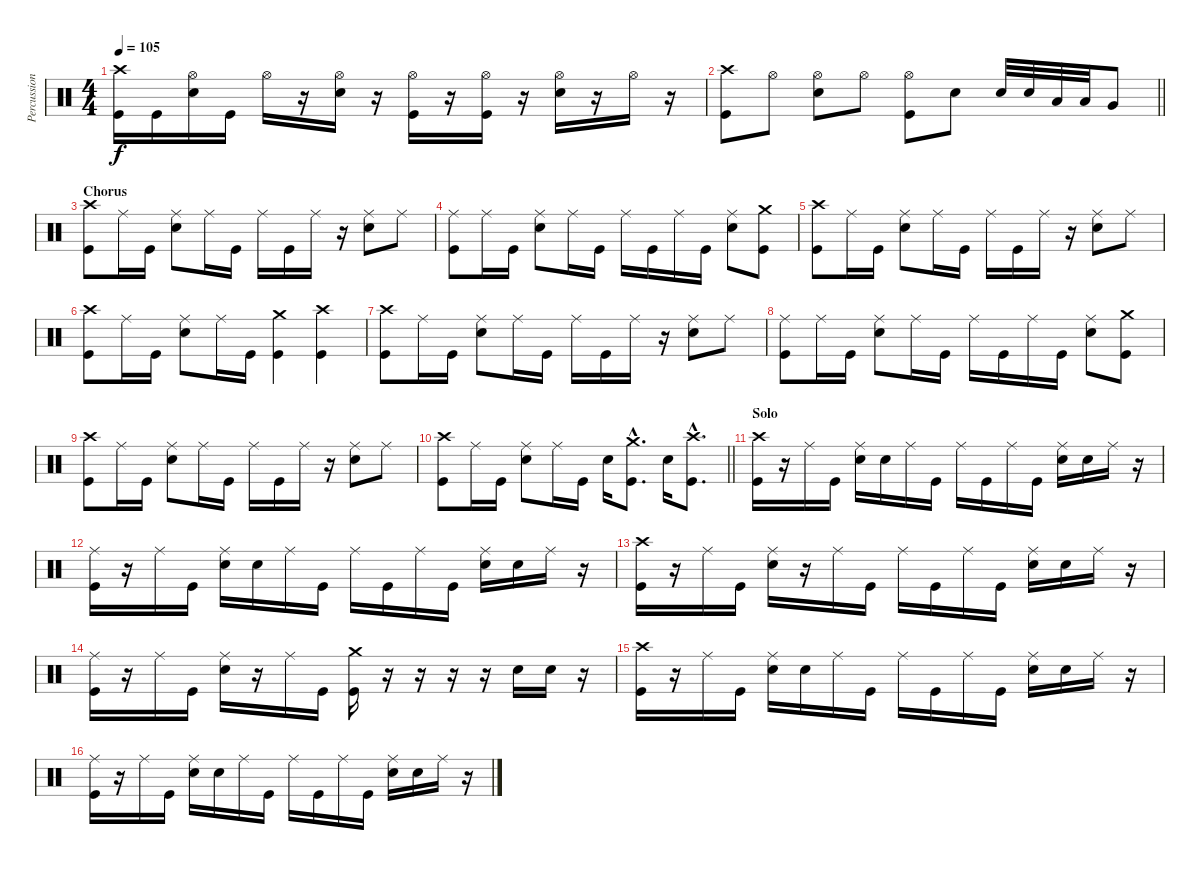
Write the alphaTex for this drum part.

\track ("Percussions" "Percussion") {instrument percussion}
\staff {score}
\articulation defaults
\ts (4 4)
\tempo 105
\clef neutral
\ks c
("Crash high (hit)" "Kick (hit)").16{dy f} "Kick (hit)".16 ("Hi-Hat (open)" "Snare (hit) 2").16 "Kick (hit)".16 "Hi-Hat (open)".16 r.16 ("Hi-Hat (open)" "Snare (hit) 2").16 r.16 ("Hi-Hat (open)" "Kick (hit)").16 r.16 ("Hi-Hat (open)" "Kick (hit)").16 r.16 ("Hi-Hat (open)" "Snare (hit) 2").16 r.16 "Hi-Hat (open)".16 r.16 |
\barLineRight lightlight
("Crash high (hit)" "Kick (hit)").8 "Hi-Hat (open)".8 ("Hi-Hat (open)" "Snare (hit) 2").8 "Hi-Hat (open)".8 ("Hi-Hat (open)" "Kick (hit)").8 "Snare (hit) 2".8 "Snare (hit) 2".32 "Snare (hit) 2".32 "Low Tom (hit)".32 "Low Tom (hit)".32 "Very Low Tom (hit)".8 |
\section ("" "Chorus")
("Crash high (hit)" "Kick (hit)").8 "Ride (middle)".16 "Kick (hit)".16 ("Ride (middle)" "Snare (hit) 2").8 "Ride (middle)".16 "Kick (hit)".16 "Ride (middle)".16 "Kick (hit)".16 "Ride (middle)".16 r.16 ("Ride (middle)" "Snare (hit) 2").8 "Ride (middle)".8 |
("Ride (middle)" "Kick (hit)").8 "Ride (middle)".16 "Kick (hit)".16 ("Ride (middle)" "Snare (hit) 2").8 "Ride (middle)".16 "Kick (hit)".16 "Ride (middle)".16 "Kick (hit)".16 "Ride (middle)".16 "Kick (hit)".16 ("Ride (middle)" "Snare (hit) 2").8 ("Crash medium (hit)" "Kick (hit)").8 |
("Crash high (hit)" "Kick (hit)").8 "Ride (middle)".16 "Kick (hit)".16 ("Ride (middle)" "Snare (hit) 2").8 "Ride (middle)".16 "Kick (hit)".16 "Ride (middle)".16 "Kick (hit)".16 "Ride (middle)".16 r.16 ("Ride (middle)" "Snare (hit) 2").8 "Ride (middle)".8 |
("Crash high (hit)" "Kick (hit)").8 "Ride (middle)".16 "Kick (hit)".16 ("Ride (middle)" "Snare (hit) 2").8 "Ride (middle)".16 "Kick (hit)".16 ("Crash medium (hit)" "Kick (hit)").4 ("Crash high (hit)" "Kick (hit)").4 |
("Crash high (hit)" "Kick (hit)").8 "Ride (middle)".16 "Kick (hit)".16 ("Ride (middle)" "Snare (hit) 2").8 "Ride (middle)".16 "Kick (hit)".16 "Ride (middle)".16 "Kick (hit)".16 "Ride (middle)".16 r.16 ("Ride (middle)" "Snare (hit) 2").8 "Ride (middle)".8 |
("Ride (middle)" "Kick (hit)").8 "Ride (middle)".16 "Kick (hit)".16 ("Ride (middle)" "Snare (hit) 2").8 "Ride (middle)".16 "Kick (hit)".16 "Ride (middle)".16 "Kick (hit)".16 "Ride (middle)".16 "Kick (hit)".16 ("Ride (middle)" "Snare (hit) 2").8 ("Crash medium (hit)" "Kick (hit)").8 |
("Crash high (hit)" "Kick (hit)").8 "Ride (middle)".16 "Kick (hit)".16 ("Ride (middle)" "Snare (hit) 2").8 "Ride (middle)".16 "Kick (hit)".16 "Ride (middle)".16 "Kick (hit)".16 "Ride (middle)".16 r.16 ("Ride (middle)" "Snare (hit) 2").8 "Ride (middle)".8 |
\barLineRight lightlight
("Crash high (hit)" "Kick (hit)").8 "Ride (middle)".16 "Kick (hit)".16 ("Ride (middle)" "Snare (hit) 2").8 "Ride (middle)".16 "Kick (hit)".16 "Snare (hit) 2".16 ("Crash medium (hit)"{hac} "Kick (hit)"{hac}).8{d} "Snare (hit) 2".16 ("Crash high (hit)"{hac} "Kick (hit)"{hac}).8{d} |
\section ("" "Solo")
("Crash high (hit)" "Kick (hit)").16 r.16 "Ride (middle)".16 "Kick (hit)".16 ("Ride (middle)" "Snare (hit) 2").16 "Snare (hit) 2".16 "Ride (middle)".16 "Kick (hit)".16 "Ride (middle)".16 "Kick (hit)".16 "Ride (middle)".16 "Kick (hit)".16 ("Ride (middle)" "Snare (hit) 2").16 "Snare (hit) 2".16 "Ride (middle)".16 r.16 |
("Ride (middle)" "Kick (hit)").16 r.16 "Ride (middle)".16 "Kick (hit)".16 ("Ride (middle)" "Snare (hit) 2").16 "Snare (hit) 2".16 "Ride (middle)".16 "Kick (hit)".16 "Ride (middle)".16 "Kick (hit)".16 "Ride (middle)".16 "Kick (hit)".16 ("Ride (middle)" "Snare (hit) 2").16 "Snare (hit) 2".16 "Ride (middle)".16 r.16 |
("Crash high (hit)" "Kick (hit)").16 r.16 "Ride (middle)".16 "Kick (hit)".16 ("Ride (middle)" "Snare (hit) 2").16 r.16 "Ride (middle)".16 "Kick (hit)".16 "Ride (middle)".16 "Kick (hit)".16 "Ride (middle)".16 "Kick (hit)".16 ("Ride (middle)" "Snare (hit) 2").16 "Snare (hit) 2".16 "Ride (middle)".16 r.16 |
("Ride (middle)" "Kick (hit)").16 r.16 "Ride (middle)".16 "Kick (hit)".16 ("Ride (middle)" "Snare (hit) 2").16 r.16 "Ride (middle)".16 "Kick (hit)".16 ("Crash medium (hit)" "Kick (hit)").16 r.16 r.16 r.16 r.16 "Snare (hit) 2".16 "Snare (hit) 2".16 r.16 |
("Crash high (hit)" "Kick (hit)").16 r.16 "Ride (middle)".16 "Kick (hit)".16 ("Ride (middle)" "Snare (hit) 2").16 "Snare (hit) 2".16 "Ride (middle)".16 "Kick (hit)".16 "Ride (middle)".16 "Kick (hit)".16 "Ride (middle)".16 "Kick (hit)".16 ("Ride (middle)" "Snare (hit) 2").16 "Snare (hit) 2".16 "Ride (middle)".16 r.16 |
("Ride (middle)" "Kick (hit)").16 r.16 "Ride (middle)".16 "Kick (hit)".16 ("Ride (middle)" "Snare (hit) 2").16 "Snare (hit) 2".16 "Ride (middle)".16 "Kick (hit)".16 "Ride (middle)".16 "Kick (hit)".16 "Ride (middle)".16 "Kick (hit)".16 ("Ride (middle)" "Snare (hit) 2").16 "Snare (hit) 2".16 "Ride (middle)".16 r.16
